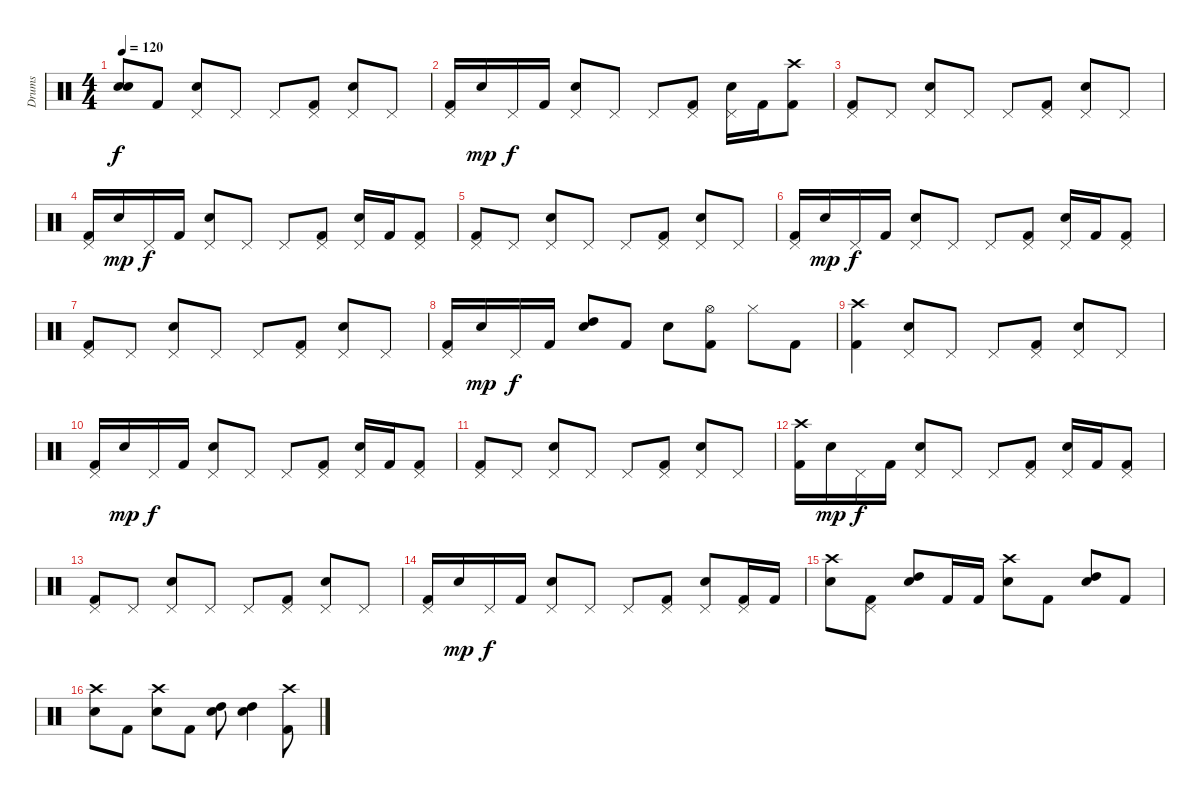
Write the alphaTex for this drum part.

\track ("Drums" "Drums") {instrument percussion}
\staff {score}
\articulation defaults
\ts (4 4)
\tempo 120
\clef neutral
\ks c
("Snare (hit)"{t} "Snare (hit)"{t}).8{dy f} "Kick (hit) 2".8 ("Pedal Hi-Hat (hit)" "Electric Snare (hit)").8 "Pedal Hi-Hat (hit)".8 "Pedal Hi-Hat (hit)".8 ("Pedal Hi-Hat (hit)" "Kick (hit) 2").8 ("Pedal Hi-Hat (hit)" "Electric Snare (hit)").8 "Pedal Hi-Hat (hit)".8 |
("Pedal Hi-Hat (hit)" "Kick (hit) 2").16 "Electric Snare (hit)".16{dy mp} "Pedal Hi-Hat (hit)".16{dy f} "Kick (hit) 2".16 ("Pedal Hi-Hat (hit)" "Electric Snare (hit)").8 "Pedal Hi-Hat (hit)".8 "Pedal Hi-Hat (hit)".8 ("Pedal Hi-Hat (hit)" "Kick (hit) 2").8 ("Pedal Hi-Hat (hit)" "Electric Snare (hit)").16 "Kick (hit) 2".16 ("Crash high (hit)" "Kick (hit) 2").8 |
("Pedal Hi-Hat (hit)" "Kick (hit) 2").8 "Pedal Hi-Hat (hit)".8 ("Pedal Hi-Hat (hit)" "Electric Snare (hit)").8 "Pedal Hi-Hat (hit)".8 "Pedal Hi-Hat (hit)".8 ("Pedal Hi-Hat (hit)" "Kick (hit) 2").8 ("Pedal Hi-Hat (hit)" "Electric Snare (hit)").8 "Pedal Hi-Hat (hit)".8 |
("Pedal Hi-Hat (hit)" "Kick (hit) 2").16 "Electric Snare (hit)".16{dy mp} "Pedal Hi-Hat (hit)".16{dy f} "Kick (hit) 2".16 ("Pedal Hi-Hat (hit)" "Electric Snare (hit)").8 "Pedal Hi-Hat (hit)".8 "Pedal Hi-Hat (hit)".8 ("Pedal Hi-Hat (hit)" "Kick (hit) 2").8 ("Pedal Hi-Hat (hit)" "Electric Snare (hit)").16 "Kick (hit) 2".16 ("Pedal Hi-Hat (hit)" "Kick (hit) 2").8 |
("Pedal Hi-Hat (hit)" "Kick (hit) 2").8 "Pedal Hi-Hat (hit)".8 ("Pedal Hi-Hat (hit)" "Electric Snare (hit)").8 "Pedal Hi-Hat (hit)".8 "Pedal Hi-Hat (hit)".8 ("Pedal Hi-Hat (hit)" "Kick (hit) 2").8 ("Pedal Hi-Hat (hit)" "Electric Snare (hit)").8 "Pedal Hi-Hat (hit)".8 |
("Pedal Hi-Hat (hit)" "Kick (hit) 2").16 "Electric Snare (hit)".16{dy mp} "Pedal Hi-Hat (hit)".16{dy f} "Kick (hit) 2".16 ("Pedal Hi-Hat (hit)" "Electric Snare (hit)").8 "Pedal Hi-Hat (hit)".8 "Pedal Hi-Hat (hit)".8 ("Pedal Hi-Hat (hit)" "Kick (hit) 2").8 ("Pedal Hi-Hat (hit)" "Electric Snare (hit)").16 "Kick (hit) 2".16 ("Pedal Hi-Hat (hit)" "Kick (hit) 2").8 |
("Pedal Hi-Hat (hit)" "Kick (hit) 2").8 "Pedal Hi-Hat (hit)".8 ("Pedal Hi-Hat (hit)" "Electric Snare (hit)").8 "Pedal Hi-Hat (hit)".8 "Pedal Hi-Hat (hit)".8 ("Pedal Hi-Hat (hit)" "Kick (hit) 2").8 ("Pedal Hi-Hat (hit)" "Electric Snare (hit)").8 "Pedal Hi-Hat (hit)".8 |
("Pedal Hi-Hat (hit)" "Kick (hit) 2").16 "Electric Snare (hit)".16{dy mp} "Pedal Hi-Hat (hit)".16{dy f} "Kick (hit) 2".16 ("Electric Snare (hit)" "High Tom (hit)").8 "Kick (hit) 2".8 "Electric Snare (hit)".8 ("Hi-Hat (open)" "Kick (hit) 2").8 "Hi-Hat (closed)".8 "Kick (hit) 2".8 |
("Crash high (hit)" "Kick (hit) 2").4 ("Pedal Hi-Hat (hit)" "Electric Snare (hit)").8 "Pedal Hi-Hat (hit)".8 "Pedal Hi-Hat (hit)".8 ("Pedal Hi-Hat (hit)" "Kick (hit) 2").8 ("Pedal Hi-Hat (hit)" "Electric Snare (hit)").8 "Pedal Hi-Hat (hit)".8 |
("Pedal Hi-Hat (hit)" "Kick (hit) 2").16 "Electric Snare (hit)".16{dy mp} "Pedal Hi-Hat (hit)".16{dy f} "Kick (hit) 2".16 ("Pedal Hi-Hat (hit)" "Electric Snare (hit)").8 "Pedal Hi-Hat (hit)".8 "Pedal Hi-Hat (hit)".8 ("Pedal Hi-Hat (hit)" "Kick (hit) 2").8 ("Pedal Hi-Hat (hit)" "Electric Snare (hit)").16 "Kick (hit) 2".16 ("Pedal Hi-Hat (hit)" "Kick (hit) 2").8 |
("Pedal Hi-Hat (hit)" "Kick (hit) 2").8 "Pedal Hi-Hat (hit)".8 ("Pedal Hi-Hat (hit)" "Electric Snare (hit)").8 "Pedal Hi-Hat (hit)".8 "Pedal Hi-Hat (hit)".8 ("Pedal Hi-Hat (hit)" "Kick (hit) 2").8 ("Pedal Hi-Hat (hit)" "Electric Snare (hit)").8 "Pedal Hi-Hat (hit)".8 |
("Crash high (hit)" "Kick (hit) 2").16 "Electric Snare (hit)".16{dy mp} "Pedal Hi-Hat (hit)".16{dy f} "Kick (hit) 2".16 ("Pedal Hi-Hat (hit)" "Electric Snare (hit)").8 "Pedal Hi-Hat (hit)".8 "Pedal Hi-Hat (hit)".8 ("Pedal Hi-Hat (hit)" "Kick (hit) 2").8 ("Pedal Hi-Hat (hit)" "Electric Snare (hit)").16 "Kick (hit) 2".16 ("Pedal Hi-Hat (hit)" "Kick (hit) 2").8 |
("Pedal Hi-Hat (hit)" "Kick (hit) 2").8 "Pedal Hi-Hat (hit)".8 ("Pedal Hi-Hat (hit)" "Electric Snare (hit)").8 "Pedal Hi-Hat (hit)".8 "Pedal Hi-Hat (hit)".8 ("Pedal Hi-Hat (hit)" "Kick (hit) 2").8 ("Pedal Hi-Hat (hit)" "Electric Snare (hit)").8 "Pedal Hi-Hat (hit)".8 |
("Pedal Hi-Hat (hit)" "Kick (hit) 2").16 "Electric Snare (hit)".16{dy mp} "Pedal Hi-Hat (hit)".16{dy f} "Kick (hit) 2".16 ("Pedal Hi-Hat (hit)" "Electric Snare (hit)").8 "Pedal Hi-Hat (hit)".8 "Pedal Hi-Hat (hit)".8 ("Pedal Hi-Hat (hit)" "Kick (hit) 2").8 ("Pedal Hi-Hat (hit)" "Electric Snare (hit)").8 ("Pedal Hi-Hat (hit)" "Kick (hit) 2").16 "Kick (hit) 2".16 |
("Crash high (hit)" "Electric Snare (hit)").8 ("Pedal Hi-Hat (hit)" "Kick (hit) 2").8 ("Electric Snare (hit)" "High Tom (hit)").8 "Kick (hit) 2".16 "Kick (hit) 2".16 ("Crash high (hit)" "Electric Snare (hit)").8 "Kick (hit) 2".8 ("Electric Snare (hit)" "High Tom (hit)").8 "Kick (hit) 2".8 |
("Crash high (hit)" "Electric Snare (hit)").8 "Kick (hit) 2".8 ("Crash high (hit)" "Electric Snare (hit)").8 "Kick (hit) 2".8 ("Electric Snare (hit)" "High Tom (hit)").8 ("Electric Snare (hit)" "High Tom (hit)").4 ("Crash high (hit)" "Kick (hit) 2").8
